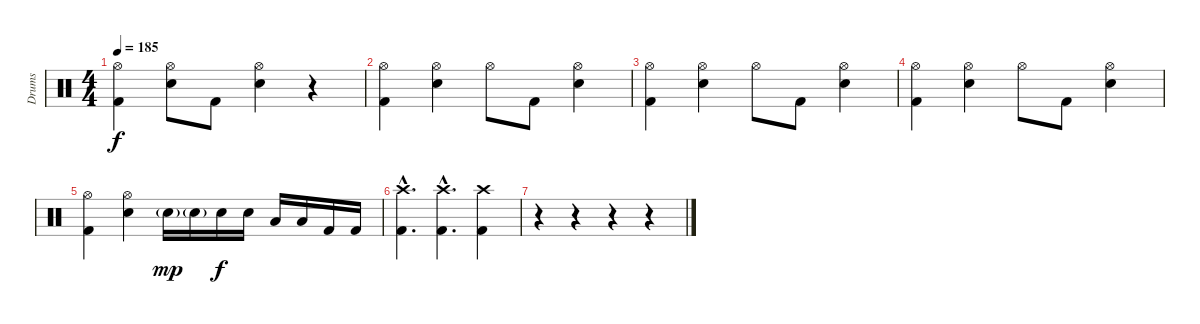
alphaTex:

\track ("Drums" "Drums") {instrument percussion}
\staff {score}
\articulation defaults
\ts (4 4)
\tempo 185
\clef neutral
\ks c
("Hi-Hat (open)" "Kick (hit) 2").4{dy f} ("Hi-Hat (open)" "Electric Snare (hit)").8 "Kick (hit) 2".8 ("Hi-Hat (open)" "Electric Snare (hit)").4 r.4 |
("Hi-Hat (open)" "Kick (hit) 2").4 ("Hi-Hat (open)" "Electric Snare (hit)").4 "Hi-Hat (open)".8 "Kick (hit) 2".8 ("Hi-Hat (open)" "Electric Snare (hit)").4 |
("Hi-Hat (open)" "Kick (hit) 2").4 ("Hi-Hat (open)" "Electric Snare (hit)").4 "Hi-Hat (open)".8 "Kick (hit) 2".8 ("Hi-Hat (open)" "Electric Snare (hit)").4 |
("Hi-Hat (open)" "Kick (hit) 2").4 ("Hi-Hat (open)" "Electric Snare (hit)").4 "Hi-Hat (open)".8 "Kick (hit) 2".8 ("Hi-Hat (open)" "Electric Snare (hit)").4 |
("Hi-Hat (open)" "Kick (hit) 2").4 ("Hi-Hat (open)" "Electric Snare (hit)").4 "Electric Snare (hit)"{g}.16{dy mp} "Electric Snare (hit)"{g}.16 "Electric Snare (hit)".16{dy f} "Electric Snare (hit)".16 "Low Tom (hit)".16 "Low Tom (hit)".16 "Kick (hit) 2".16 "Kick (hit) 2".16 |
("Crash high (hit)"{hac} "Kick (hit) 2"{hac}).4{d} ("Crash high (hit)"{hac} "Kick (hit) 2"{hac}).4{d} ("Crash high (hit)" "Kick (hit) 2").4 |
r.4 r.4 r.4 r.4
